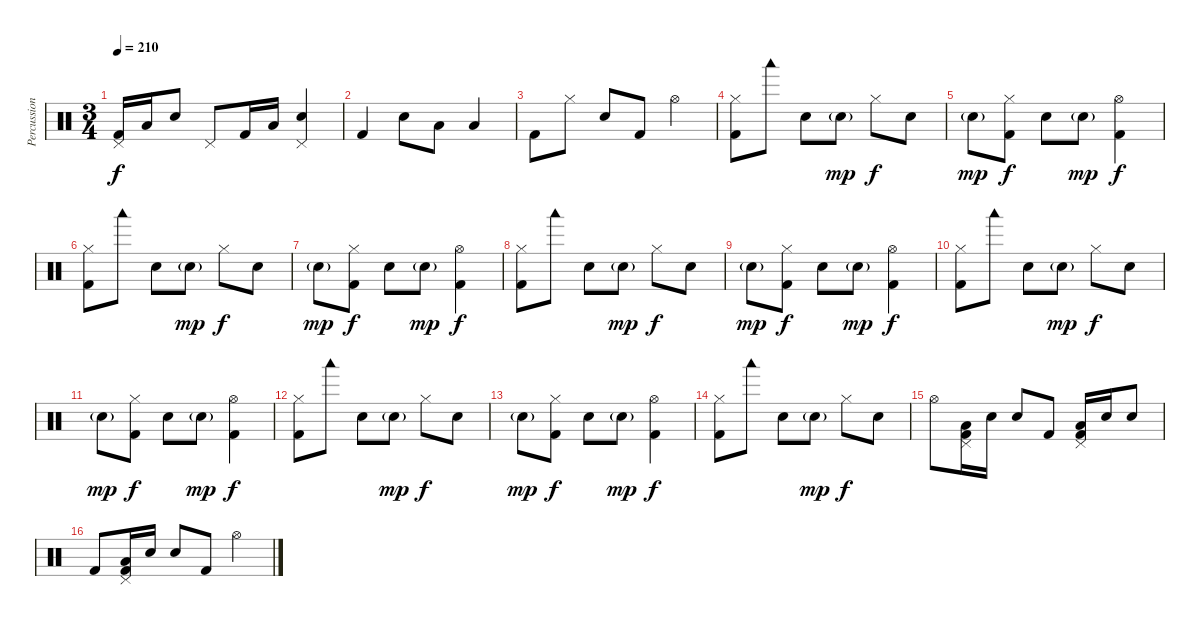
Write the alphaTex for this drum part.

\track ("Percussion" "Percussion") {instrument percussion}
\staff
\articulation defaults
\ts (3 4)
\tempo 210
\clef neutral
\ks c
("Pedal Hi-Hat (hit)" "Kick (hit) 2").16{dy f} "Low Floor Tom (hit)".16 "Electric Snare (hit)".8 "Pedal Hi-Hat (hit)".8 "Kick (hit) 2".16 "Low Floor Tom (hit)".16 ("Pedal Hi-Hat (hit)" "Electric Snare (hit)").4 |
"Kick (hit) 2".4 "Electric Snare (hit)".8 "Low Floor Tom (hit)".8 "Low Floor Tom (hit)".4 |
"Kick (hit) 2".8 "Hi-Hat (closed)".8 "Electric Snare (hit)".8 "Kick (hit) 2".8 "Hi-Hat (open)".4 |
("Hi-Hat (closed)" "Kick (hit) 2").8 "Woodblock low (hit)".8 "Electric Snare (hit)".8 "Electric Snare (hit)"{g}.8{dy mp} "Hi-Hat (closed)".8{dy f} "Electric Snare (hit)".8 |
"Electric Snare (hit)"{g}.8{dy mp} ("Hi-Hat (closed)" "Kick (hit) 2").8{dy f} "Electric Snare (hit)".8 "Electric Snare (hit)"{g}.8{dy mp} ("Hi-Hat (open)" "Kick (hit) 2").4{dy f} |
("Hi-Hat (closed)" "Kick (hit) 2").8 "Woodblock low (hit)".8 "Electric Snare (hit)".8 "Electric Snare (hit)"{g}.8{dy mp} "Hi-Hat (closed)".8{dy f} "Electric Snare (hit)".8 |
"Electric Snare (hit)"{g}.8{dy mp} ("Hi-Hat (closed)" "Kick (hit) 2").8{dy f} "Electric Snare (hit)".8 "Electric Snare (hit)"{g}.8{dy mp} ("Hi-Hat (open)" "Kick (hit) 2").4{dy f} |
("Hi-Hat (closed)" "Kick (hit) 2").8 "Woodblock low (hit)".8 "Electric Snare (hit)".8 "Electric Snare (hit)"{g}.8{dy mp} "Hi-Hat (closed)".8{dy f} "Electric Snare (hit)".8 |
"Electric Snare (hit)"{g}.8{dy mp} ("Hi-Hat (closed)" "Kick (hit) 2").8{dy f} "Electric Snare (hit)".8 "Electric Snare (hit)"{g}.8{dy mp} ("Hi-Hat (open)" "Kick (hit) 2").4{dy f} |
("Hi-Hat (closed)" "Kick (hit) 2").8 "Woodblock low (hit)".8 "Electric Snare (hit)".8 "Electric Snare (hit)"{g}.8{dy mp} "Hi-Hat (closed)".8{dy f} "Electric Snare (hit)".8 |
"Electric Snare (hit)"{g}.8{dy mp} ("Hi-Hat (closed)" "Kick (hit) 2").8{dy f} "Electric Snare (hit)".8 "Electric Snare (hit)"{g}.8{dy mp} ("Hi-Hat (open)" "Kick (hit) 2").4{dy f} |
("Hi-Hat (closed)" "Kick (hit) 2").8 "Woodblock low (hit)".8 "Electric Snare (hit)".8 "Electric Snare (hit)"{g}.8{dy mp} "Hi-Hat (closed)".8{dy f} "Electric Snare (hit)".8 |
"Electric Snare (hit)"{g}.8{dy mp} ("Hi-Hat (closed)" "Kick (hit) 2").8{dy f} "Electric Snare (hit)".8 "Electric Snare (hit)"{g}.8{dy mp} ("Hi-Hat (open)" "Kick (hit) 2").4{dy f} |
("Hi-Hat (closed)" "Kick (hit) 2").8 "Woodblock low (hit)".8 "Electric Snare (hit)".8 "Electric Snare (hit)"{g}.8{dy mp} "Hi-Hat (closed)".8{dy f} "Electric Snare (hit)".8 |
"Hi-Hat (open)".8 ("Pedal Hi-Hat (hit)" "Low Tom (hit)" "Kick (hit) 2").16 "Electric Snare (hit)".16 "Electric Snare (hit)".8 "Kick (hit) 2".8 ("Pedal Hi-Hat (hit)" "Low Floor Tom (hit)" "Kick (hit) 2").16 "Electric Snare (hit)".16 "Electric Snare (hit)".8 |
"Kick (hit) 2".8 ("Pedal Hi-Hat (hit)" "Low Tom (hit)" "Kick (hit) 2").16 "Electric Snare (hit)".16 "Electric Snare (hit)".8 "Kick (hit) 2".8 "Hi-Hat (open)".4
